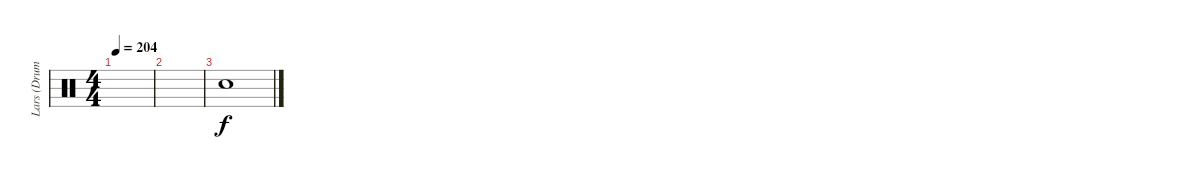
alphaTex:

\track ("Lars (Drums)" "Lars (Drum") {instrument percussion}
\staff {score}
\articulation defaults
\ts (4 4)
\tempo 204
\clef neutral
\ks c
|
|
"Snare (hit)".1
